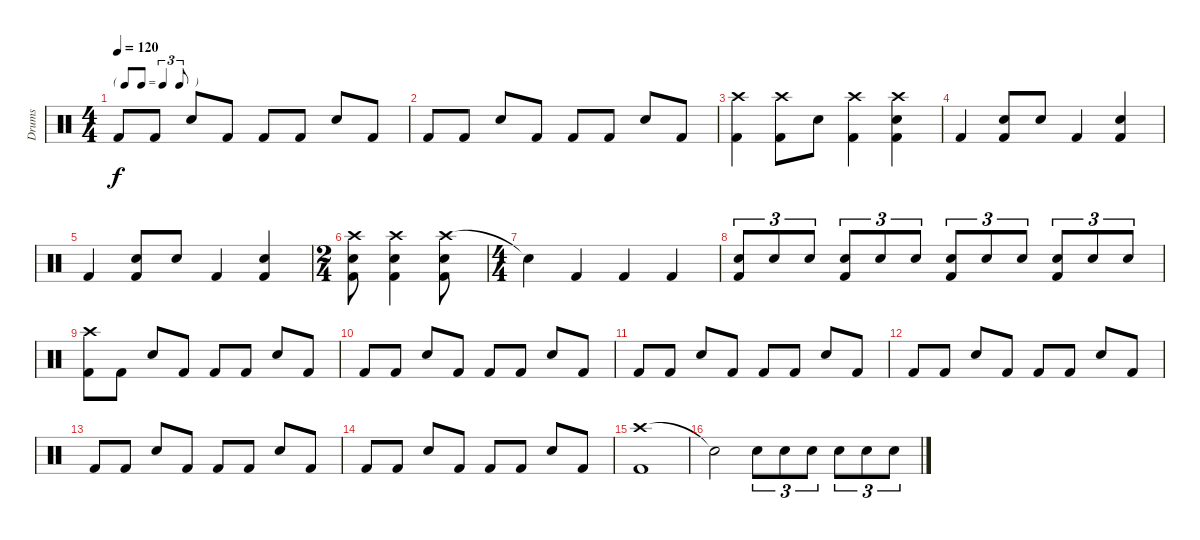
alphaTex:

\track ("Drums" "Drums") {instrument percussion}
\staff {score}
\articulation defaults
\ts (4 4)
\tf triplet8th
\tempo 120
\clef neutral
\ks c "Kick (hit) 2".8{dy f} "Kick (hit) 2".8 "Snare (hit) 2".8 "Kick (hit) 2".8 "Kick (hit) 2".8 "Kick (hit) 2".8 "Snare (hit) 2".8 "Kick (hit) 2".8
|
"Kick (hit) 2".8 "Kick (hit) 2".8 "Snare (hit) 2".8 "Kick (hit) 2".8 "Kick (hit) 2".8 "Kick (hit) 2".8 "Snare (hit) 2".8 "Kick (hit) 2".8 |
("Crash high (hit)" "Kick (hit) 2").4 ("Crash high (hit)" "Kick (hit) 2").8 "Snare (hit) 2".8 ("Crash high (hit)" "Kick (hit) 2").4 ("Crash high (hit)" "Snare (hit) 2" "Kick (hit) 2").4 |
"Kick (hit) 2".4 ("Snare (hit) 2" "Kick (hit) 2").8 "Snare (hit) 2".8 "Kick (hit) 2".4 ("Snare (hit) 2" "Kick (hit) 2").4 |
"Kick (hit) 2".4 ("Snare (hit) 2" "Kick (hit) 2").8 "Snare (hit) 2".8 "Kick (hit) 2".4 ("Snare (hit) 2" "Kick (hit) 2").4 |
\ts (2 4)
("Crash high (hit)" "Snare (hit) 2" "Kick (hit) 2").8 ("Crash high (hit)" "Snare (hit) 2" "Kick (hit) 2").4 ("Crash high (hit)" "Snare (hit) 2" "Kick (hit) 2").8 |
\ts (4 4)
"Snare (hit)"{t}.4 "Kick (hit) 2".4 "Kick (hit) 2".4 "Kick (hit) 2".4 |
("Snare (hit) 2" "Kick (hit) 2").8{tu (3 2)} "Snare (hit) 2".8{tu (3 2)} "Snare (hit) 2".8{tu (3 2)} ("Snare (hit) 2" "Kick (hit) 2").8{tu (3 2)} "Snare (hit) 2".8{tu (3 2)} "Snare (hit) 2".8{tu (3 2)} ("Snare (hit) 2" "Kick (hit) 2").8{tu (3 2)} "Snare (hit) 2".8{tu (3 2)} "Snare (hit) 2".8{tu (3 2)} ("Snare (hit) 2" "Kick (hit) 2").8{tu (3 2)} "Snare (hit) 2".8{tu (3 2)} "Snare (hit) 2".8{tu (3 2)} |
("Crash high (hit)" "Kick (hit) 2").8 "Kick (hit) 2".8 "Snare (hit) 2".8 "Kick (hit) 2".8 "Kick (hit) 2".8 "Kick (hit) 2".8 "Snare (hit) 2".8 "Kick (hit) 2".8 |
"Kick (hit) 2".8 "Kick (hit) 2".8 "Snare (hit) 2".8 "Kick (hit) 2".8 "Kick (hit) 2".8 "Kick (hit) 2".8 "Snare (hit) 2".8 "Kick (hit) 2".8 |
"Kick (hit) 2".8 "Kick (hit) 2".8 "Snare (hit) 2".8 "Kick (hit) 2".8 "Kick (hit) 2".8 "Kick (hit) 2".8 "Snare (hit) 2".8 "Kick (hit) 2".8 |
"Kick (hit) 2".8 "Kick (hit) 2".8 "Snare (hit) 2".8 "Kick (hit) 2".8 "Kick (hit) 2".8 "Kick (hit) 2".8 "Snare (hit) 2".8 "Kick (hit) 2".8 |
"Kick (hit) 2".8 "Kick (hit) 2".8 "Snare (hit) 2".8 "Kick (hit) 2".8 "Kick (hit) 2".8 "Kick (hit) 2".8 "Snare (hit) 2".8 "Kick (hit) 2".8 |
"Kick (hit) 2".8 "Kick (hit) 2".8 "Snare (hit) 2".8 "Kick (hit) 2".8 "Kick (hit) 2".8 "Kick (hit) 2".8 "Snare (hit) 2".8 "Kick (hit) 2".8 |
("Crash high (hit)" "Kick (hit) 2").1 |
"Snare (hit)"{t}.2 "Snare (hit) 2".8{tu (3 2)} "Snare (hit) 2".8{tu (3 2)} "Snare (hit) 2".8{tu (3 2)} "Snare (hit) 2".8{tu (3 2)} "Snare (hit) 2".8{tu (3 2)} "Snare (hit) 2".8{tu (3 2)}
